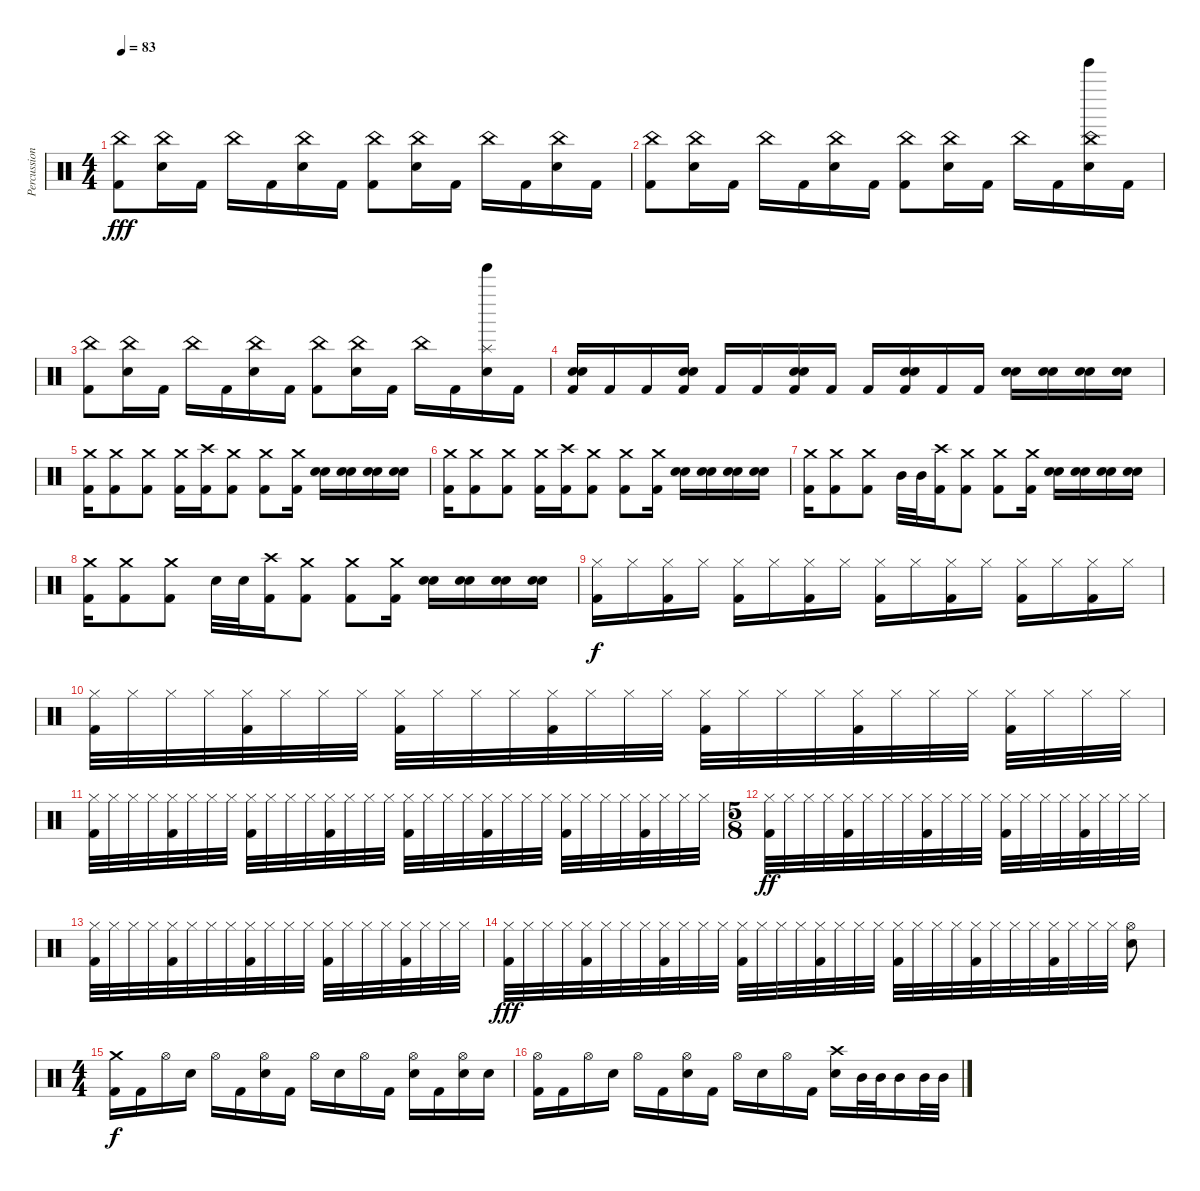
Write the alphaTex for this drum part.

\track ("Percussion" "Percussion") {instrument percussion}
\staff {score}
\articulation defaults
\ts (4 4)
\tempo 83
\clef neutral
\ks c
("China (hit)" "Kick (hit) 2").8{dy fff} ("China (hit)" "Snare (hit) 2").16 "Kick (hit) 2".16 "China (hit)".16 "Kick (hit) 2".16 ("China (hit)" "Snare (hit) 2").16 "Kick (hit) 2".16 ("China (hit)" "Kick (hit) 2").8 ("China (hit)" "Snare (hit) 2").16 "Kick (hit) 2".16 "China (hit)".16 "Kick (hit) 2".16 ("China (hit)" "Snare (hit) 2").16 "Kick (hit) 2".16 |
("China (hit)" "Kick (hit) 2").8 ("China (hit)" "Snare (hit) 2").16 "Kick (hit) 2".16 "China (hit)".16 "Kick (hit) 2".16 ("China (hit)" "Snare (hit) 2").16 "Kick (hit) 2".16 ("China (hit)" "Kick (hit) 2").8 ("China (hit)" "Snare (hit) 2").16 "Kick (hit) 2".16 "China (hit)".16 "Kick (hit) 2".16 ("China (hit)" "Snare (hit) 2" "Tinkle Bell (hit)").16 "Kick (hit) 2".16 |
("China (hit)" "Kick (hit) 2").8 ("China (hit)" "Snare (hit) 2").16 "Kick (hit) 2".16 "China (hit)".16 "Kick (hit) 2".16 ("China (hit)" "Snare (hit) 2").16 "Kick (hit) 2".16 ("China (hit)" "Kick (hit) 2").8 ("China (hit)" "Snare (hit) 2").16 "Kick (hit) 2".16 "China (hit)".16 "Kick (hit) 2".16 ("Splash (hit)" "Snare (hit) 2" "Tinkle Bell (hit)").16 "Kick (hit) 2".16 |
("Electric Snare (hit)" "Electric Snare (hit)" "Kick (hit) 2").16{bu 60} "Kick (hit) 2".16 "Kick (hit) 2".16 ("Electric Snare (hit)" "Electric Snare (hit)" "Kick (hit) 2").16{bu 60} "Kick (hit) 2".16 "Kick (hit) 2".16 ("Electric Snare (hit)" "Electric Snare (hit)" "Kick (hit) 2").16{bu 60} "Kick (hit) 2".16 "Kick (hit) 2".16 ("Electric Snare (hit)" "Electric Snare (hit)" "Kick (hit) 2").16{bu 60} "Kick (hit) 2".16 "Kick (hit) 2".16 ("Electric Snare (hit)" "Electric Snare (hit)").16{bd 60} ("Electric Snare (hit)" "Electric Snare (hit)").16{bd 60} ("Electric Snare (hit)" "Electric Snare (hit)").16{bd 60} ("Electric Snare (hit)" "Electric Snare (hit)").16{bd 60} |
("Crash medium (hit)" "Kick (hit) 2").16 ("Crash medium (hit)" "Kick (hit) 2").8 ("Crash medium (hit)" "Kick (hit) 2").8 ("Crash medium (hit)" "Kick (hit) 2").16 ("Crash high (hit)" "Kick (hit) 2").16 ("Crash medium (hit)" "Kick (hit) 2").8 ("Crash medium (hit)" "Kick (hit) 2").8 ("Crash medium (hit)" "Kick (hit) 2").16 ("Electric Snare (hit)" "Electric Snare (hit)").16{bd 60} ("Electric Snare (hit)" "Electric Snare (hit)").16{bd 60} ("Electric Snare (hit)" "Electric Snare (hit)").16{bd 60} ("Electric Snare (hit)" "Electric Snare (hit)").16{bd 60} |
("Crash medium (hit)" "Kick (hit) 2").16 ("Crash medium (hit)" "Kick (hit) 2").8 ("Crash medium (hit)" "Kick (hit) 2").8 ("Crash medium (hit)" "Kick (hit) 2").16 ("Crash high (hit)" "Kick (hit) 2").16 ("Crash medium (hit)" "Kick (hit) 2").8 ("Crash medium (hit)" "Kick (hit) 2").8 ("Crash medium (hit)" "Kick (hit) 2").16 ("Electric Snare (hit)" "Electric Snare (hit)").16{bd 60} ("Electric Snare (hit)" "Electric Snare (hit)").16{bd 60} ("Electric Snare (hit)" "Electric Snare (hit)").16{bd 60} ("Electric Snare (hit)" "Electric Snare (hit)").16{bd 60} |
("Crash medium (hit)" "Kick (hit) 2").16 ("Crash medium (hit)" "Kick (hit) 2").8 ("Crash medium (hit)" "Kick (hit) 2").8 "Mid Tom (hit)".32 "Mid Tom (hit)".32 ("Crash high (hit)" "Kick (hit) 2").16 ("Crash medium (hit)" "Kick (hit) 2").8 ("Crash medium (hit)" "Kick (hit) 2").8 ("Crash medium (hit)" "Kick (hit) 2").16 ("Electric Snare (hit)" "Electric Snare (hit)").16{bd 60} ("Electric Snare (hit)" "Electric Snare (hit)").16{bd 60} ("Electric Snare (hit)" "Electric Snare (hit)").16{bd 60} ("Electric Snare (hit)" "Electric Snare (hit)").16{bd 60} |
("Crash medium (hit)" "Kick (hit) 2").16 ("Crash medium (hit)" "Kick (hit) 2").8 ("Crash medium (hit)" "Kick (hit) 2").8 "Electric Snare (hit)".32 "Electric Snare (hit)".32 ("Crash high (hit)" "Kick (hit) 2").16 ("Crash medium (hit)" "Kick (hit) 2").8 ("Crash medium (hit)" "Kick (hit) 2").8 ("Crash medium (hit)" "Kick (hit) 2").16 ("Electric Snare (hit)" "Electric Snare (hit)").16{bd 60} ("Electric Snare (hit)" "Electric Snare (hit)").16{bd 60} ("Electric Snare (hit)" "Electric Snare (hit)").16{bd 60} ("Electric Snare (hit)" "Electric Snare (hit)").16{bd 60} |
("Hi-Hat (closed)" "Kick (hit) 2").16{dy f} "Hi-Hat (closed)".16 ("Hi-Hat (closed)" "Kick (hit) 2").16 "Hi-Hat (closed)".16 ("Hi-Hat (closed)" "Kick (hit) 2").16 "Hi-Hat (closed)".16 ("Hi-Hat (closed)" "Kick (hit) 2").16 "Hi-Hat (closed)".16 ("Hi-Hat (closed)" "Kick (hit) 2").16 "Hi-Hat (closed)".16 ("Hi-Hat (closed)" "Kick (hit) 2").16 "Hi-Hat (closed)".16 ("Hi-Hat (closed)" "Kick (hit) 2").16 "Hi-Hat (closed)".16 ("Hi-Hat (closed)" "Kick (hit) 2").16 "Hi-Hat (closed)".16 |
("Hi-Hat (closed)" "Kick (hit) 2").32 "Hi-Hat (closed)".32 "Hi-Hat (closed)".32 "Hi-Hat (closed)".32 ("Hi-Hat (closed)" "Kick (hit) 2").32 "Hi-Hat (closed)".32 "Hi-Hat (closed)".32 "Hi-Hat (closed)".32 ("Hi-Hat (closed)" "Kick (hit) 2").32 "Hi-Hat (closed)".32 "Hi-Hat (closed)".32 "Hi-Hat (closed)".32 ("Hi-Hat (closed)" "Kick (hit) 2").32 "Hi-Hat (closed)".32 "Hi-Hat (closed)".32 "Hi-Hat (closed)".32 ("Hi-Hat (closed)" "Kick (hit) 2").32 "Hi-Hat (closed)".32 "Hi-Hat (closed)".32 "Hi-Hat (closed)".32 ("Hi-Hat (closed)" "Kick (hit) 2").32 "Hi-Hat (closed)".32 "Hi-Hat (closed)".32 "Hi-Hat (closed)".32 ("Hi-Hat (closed)" "Kick (hit) 2").32 "Hi-Hat (closed)".32 "Hi-Hat (closed)".32 "Hi-Hat (closed)".32 |
("Hi-Hat (closed)" "Kick (hit) 2").32 "Hi-Hat (closed)".32 "Hi-Hat (closed)".32 "Hi-Hat (closed)".32 ("Hi-Hat (closed)" "Kick (hit) 2").32 "Hi-Hat (closed)".32 "Hi-Hat (closed)".32 "Hi-Hat (closed)".32 ("Hi-Hat (closed)" "Kick (hit) 2").32 "Hi-Hat (closed)".32 "Hi-Hat (closed)".32 "Hi-Hat (closed)".32 ("Hi-Hat (closed)" "Kick (hit) 2").32 "Hi-Hat (closed)".32 "Hi-Hat (closed)".32 "Hi-Hat (closed)".32 ("Hi-Hat (closed)" "Kick (hit) 2").32 "Hi-Hat (closed)".32 "Hi-Hat (closed)".32 "Hi-Hat (closed)".32 ("Hi-Hat (closed)" "Kick (hit) 2").32 "Hi-Hat (closed)".32 "Hi-Hat (closed)".32 "Hi-Hat (closed)".32 ("Hi-Hat (closed)" "Kick (hit) 2").32 "Hi-Hat (closed)".32 "Hi-Hat (closed)".32 "Hi-Hat (closed)".32 ("Hi-Hat (closed)" "Kick (hit) 2").32 "Hi-Hat (closed)".32 "Hi-Hat (closed)".32 "Hi-Hat (closed)".32 |
\ts (5 8)
("Hi-Hat (closed)" "Kick (hit) 2").32{dy ff} "Hi-Hat (closed)".32 "Hi-Hat (closed)".32 "Hi-Hat (closed)".32 ("Hi-Hat (closed)" "Kick (hit) 2").32 "Hi-Hat (closed)".32 "Hi-Hat (closed)".32 "Hi-Hat (closed)".32 ("Hi-Hat (closed)" "Kick (hit) 2").32 "Hi-Hat (closed)".32 "Hi-Hat (closed)".32 "Hi-Hat (closed)".32 ("Hi-Hat (closed)" "Kick (hit) 2").32 "Hi-Hat (closed)".32 "Hi-Hat (closed)".32 "Hi-Hat (closed)".32 ("Hi-Hat (closed)" "Kick (hit) 2").32 "Hi-Hat (closed)".32 "Hi-Hat (closed)".32 "Hi-Hat (closed)".32 |
("Hi-Hat (closed)" "Kick (hit) 2").32 "Hi-Hat (closed)".32 "Hi-Hat (closed)".32 "Hi-Hat (closed)".32 ("Hi-Hat (closed)" "Kick (hit) 2").32 "Hi-Hat (closed)".32 "Hi-Hat (closed)".32 "Hi-Hat (closed)".32 ("Hi-Hat (closed)" "Kick (hit) 2").32 "Hi-Hat (closed)".32 "Hi-Hat (closed)".32 "Hi-Hat (closed)".32 ("Hi-Hat (closed)" "Kick (hit) 2").32 "Hi-Hat (closed)".32 "Hi-Hat (closed)".32 "Hi-Hat (closed)".32 ("Hi-Hat (closed)" "Kick (hit) 2").32 "Hi-Hat (closed)".32 "Hi-Hat (closed)".32 "Hi-Hat (closed)".32 |
("Hi-Hat (closed)" "Kick (hit) 2").32{dy fff} "Hi-Hat (closed)".32 "Hi-Hat (closed)".32 "Hi-Hat (closed)".32 ("Hi-Hat (closed)" "Kick (hit) 2").32 "Hi-Hat (closed)".32 "Hi-Hat (closed)".32 "Hi-Hat (closed)".32 ("Hi-Hat (closed)" "Kick (hit) 2").32 "Hi-Hat (closed)".32 "Hi-Hat (closed)".32 "Hi-Hat (closed)".32 ("Hi-Hat (closed)" "Kick (hit) 2").32 "Hi-Hat (closed)".32 "Hi-Hat (closed)".32 "Hi-Hat (closed)".32 ("Hi-Hat (closed)" "Kick (hit) 2").32 "Hi-Hat (closed)".32 "Hi-Hat (closed)".32 "Hi-Hat (closed)".32 ("Hi-Hat (closed)" "Kick (hit) 2").32 "Hi-Hat (closed)".32 "Hi-Hat (closed)".32 "Hi-Hat (closed)".32 ("Hi-Hat (closed)" "Kick (hit) 2").32 "Hi-Hat (closed)".32 "Hi-Hat (closed)".32 "Hi-Hat (closed)".32 ("Hi-Hat (closed)" "Kick (hit) 2").32 "Hi-Hat (closed)".32 "Hi-Hat (closed)".32 "Hi-Hat (closed)".32 ("Hi-Hat (open)" "Electric Snare (hit)").8 |
\ts (4 4)
("Crash medium (hit)" "Kick (hit) 2").16{dy f} "Kick (hit) 2".16 "Hi-Hat (open)".16 "Electric Snare (hit)".16 "Hi-Hat (open)".16 "Kick (hit) 2".16 ("Hi-Hat (open)" "Electric Snare (hit)").16 "Kick (hit) 2".16 "Hi-Hat (open)".16 "Electric Snare (hit)".16 "Hi-Hat (open)".16 "Kick (hit) 2".16 ("Hi-Hat (open)" "Electric Snare (hit)").16 "Kick (hit) 2".16 ("Hi-Hat (open)" "Electric Snare (hit)").16 "Electric Snare (hit)".16 |
("Hi-Hat (open)" "Kick (hit) 2").16 "Kick (hit) 2".16 "Hi-Hat (open)".16 "Electric Snare (hit)".16 "Hi-Hat (open)".16 "Kick (hit) 2".16 ("Hi-Hat (open)" "Electric Snare (hit)").16 "Kick (hit) 2".16 "Hi-Hat (open)".16 "Electric Snare (hit)".16 "Hi-Hat (open)".16 "Kick (hit) 2".16 ("Crash high (hit)" "Electric Snare (hit)").16 "Mid Tom (hit)".32 "Mid Tom (hit)".32 "Mid Tom (hit)".16 "Mid Tom (hit)".32 "Mid Tom (hit)".32
